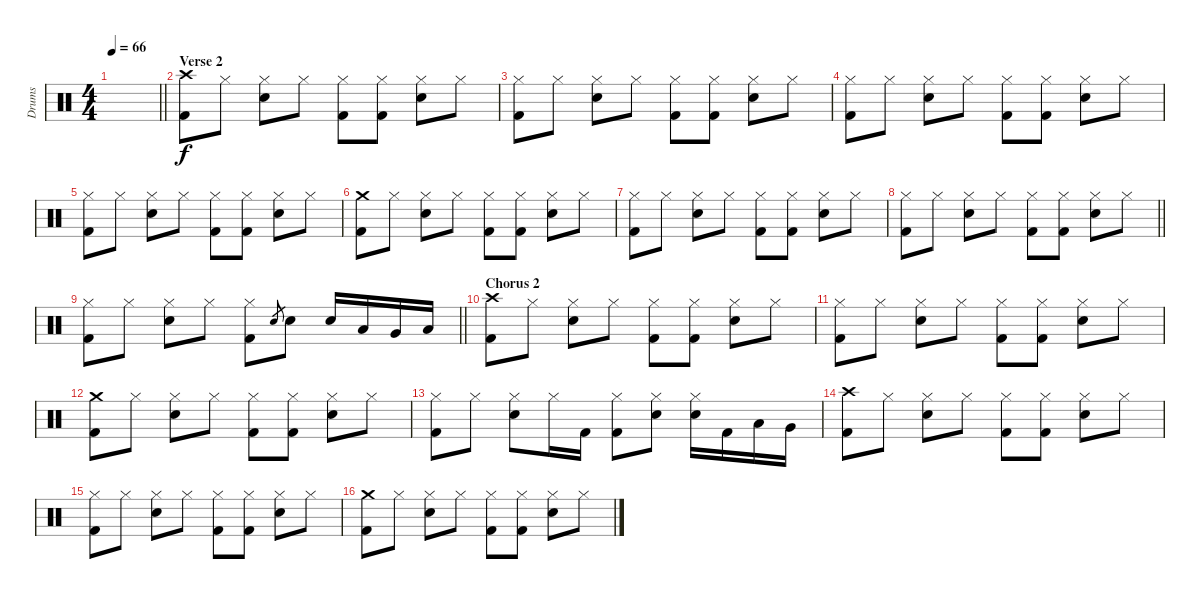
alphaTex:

\track ("Drums" "Drums") {instrument percussion}
\staff {score}
\articulation defaults
\ts (4 4)
\tempo 66
\clef neutral
\barLineRight lightlight
\ks c
|
\section ("" "Verse 2")
("Crash high (hit)" "Kick (hit) 2").8 "Hi-Hat (closed)".8 ("Hi-Hat (closed)" "Snare (hit) 2").8 "Hi-Hat (closed)".8 ("Hi-Hat (closed)" "Kick (hit) 2").8 ("Hi-Hat (closed)" "Kick (hit) 2").8 ("Hi-Hat (closed)" "Snare (hit) 2").8 "Hi-Hat (closed)".8 |
("Hi-Hat (closed)" "Kick (hit) 2").8 "Hi-Hat (closed)".8 ("Hi-Hat (closed)" "Snare (hit) 2").8 "Hi-Hat (closed)".8 ("Hi-Hat (closed)" "Kick (hit) 2").8 ("Hi-Hat (closed)" "Kick (hit) 2").8 ("Hi-Hat (closed)" "Snare (hit) 2").8 "Hi-Hat (closed)".8 |
("Hi-Hat (closed)" "Kick (hit) 2").8 "Hi-Hat (closed)".8 ("Hi-Hat (closed)" "Snare (hit) 2").8 "Hi-Hat (closed)".8 ("Hi-Hat (closed)" "Kick (hit) 2").8 ("Hi-Hat (closed)" "Kick (hit) 2").8 ("Hi-Hat (closed)" "Snare (hit) 2").8 "Hi-Hat (closed)".8 |
("Hi-Hat (closed)" "Kick (hit) 2").8 "Hi-Hat (closed)".8 ("Hi-Hat (closed)" "Snare (hit) 2").8 "Hi-Hat (closed)".8 ("Hi-Hat (closed)" "Kick (hit) 2").8 ("Hi-Hat (closed)" "Kick (hit) 2").8 ("Hi-Hat (closed)" "Snare (hit) 2").8 "Hi-Hat (closed)".8 |
("Crash medium (hit)" "Kick (hit) 2").8 "Hi-Hat (closed)".8 ("Hi-Hat (closed)" "Snare (hit) 2").8 "Hi-Hat (closed)".8 ("Hi-Hat (closed)" "Kick (hit) 2").8 ("Hi-Hat (closed)" "Kick (hit) 2").8 ("Hi-Hat (closed)" "Snare (hit) 2").8 "Hi-Hat (closed)".8 |
("Hi-Hat (closed)" "Kick (hit) 2").8 "Hi-Hat (closed)".8 ("Hi-Hat (closed)" "Snare (hit) 2").8 "Hi-Hat (closed)".8 ("Hi-Hat (closed)" "Kick (hit) 2").8 ("Hi-Hat (closed)" "Kick (hit) 2").8 ("Hi-Hat (closed)" "Snare (hit) 2").8 "Hi-Hat (closed)".8 |
\barLineRight lightlight
("Hi-Hat (closed)" "Kick (hit) 2").8 "Hi-Hat (closed)".8 ("Hi-Hat (closed)" "Snare (hit) 2").8 "Hi-Hat (closed)".8 ("Hi-Hat (closed)" "Kick (hit) 2").8 ("Hi-Hat (closed)" "Kick (hit) 2").8 ("Hi-Hat (closed)" "Snare (hit) 2").8 "Hi-Hat (closed)".8 |
\barLineRight lightlight
("Hi-Hat (closed)" "Kick (hit) 2").8 "Hi-Hat (closed)".8 ("Hi-Hat (closed)" "Snare (hit) 2").8 "Hi-Hat (closed)".8 ("Hi-Hat (closed)" "Kick (hit) 2").8 "Snare (hit) 2".8{gr} "Snare (hit) 2".8 "Snare (hit) 2".16 "Low Tom (hit)".16 "Very Low Tom (hit)".16 "Low Floor Tom (hit)".16 |
\section ("" "Chorus 2")
("Crash high (hit)" "Kick (hit) 2").8 "Hi-Hat (closed)".8 ("Hi-Hat (closed)" "Snare (hit) 2").8 "Hi-Hat (closed)".8 ("Hi-Hat (closed)" "Kick (hit) 2").8 ("Hi-Hat (closed)" "Kick (hit) 2").8 ("Hi-Hat (closed)" "Snare (hit) 2").8 "Hi-Hat (closed)".8 |
("Hi-Hat (closed)" "Kick (hit) 2").8 "Hi-Hat (closed)".8 ("Hi-Hat (closed)" "Snare (hit) 2").8 "Hi-Hat (closed)".8 ("Hi-Hat (closed)" "Kick (hit) 2").8 ("Hi-Hat (closed)" "Kick (hit) 2").8 ("Hi-Hat (closed)" "Snare (hit) 2").8 "Hi-Hat (closed)".8 |
("Crash medium (hit)" "Kick (hit) 2").8 "Hi-Hat (closed)".8 ("Hi-Hat (closed)" "Snare (hit) 2").8 "Hi-Hat (closed)".8 ("Hi-Hat (closed)" "Kick (hit) 2").8 ("Hi-Hat (closed)" "Kick (hit) 2").8 ("Hi-Hat (closed)" "Snare (hit) 2").8 "Hi-Hat (closed)".8 |
("Hi-Hat (closed)" "Kick (hit) 2").8 "Hi-Hat (closed)".8 ("Hi-Hat (closed)" "Snare (hit) 2").8 "Hi-Hat (closed)".16 "Kick (hit) 2".16 ("Hi-Hat (closed)" "Kick (hit) 2").8 ("Hi-Hat (closed)" "Snare (hit) 2").8 ("Hi-Hat (closed)" "Snare (hit) 2").16 "Kick (hit) 2".16 "Low Tom (hit)".16 "Very Low Tom (hit)".16 |
("Crash high (hit)" "Kick (hit) 2").8 "Hi-Hat (closed)".8 ("Hi-Hat (closed)" "Snare (hit) 2").8 "Hi-Hat (closed)".8 ("Hi-Hat (closed)" "Kick (hit) 2").8 ("Hi-Hat (closed)" "Kick (hit) 2").8 ("Hi-Hat (closed)" "Snare (hit) 2").8 "Hi-Hat (closed)".8 |
("Hi-Hat (closed)" "Kick (hit) 2").8 "Hi-Hat (closed)".8 ("Hi-Hat (closed)" "Snare (hit) 2").8 "Hi-Hat (closed)".8 ("Hi-Hat (closed)" "Kick (hit) 2").8 ("Hi-Hat (closed)" "Kick (hit) 2").8 ("Hi-Hat (closed)" "Snare (hit) 2").8 "Hi-Hat (closed)".8 |
("Crash medium (hit)" "Kick (hit) 2").8 "Hi-Hat (closed)".8 ("Hi-Hat (closed)" "Snare (hit) 2").8 "Hi-Hat (closed)".8 ("Hi-Hat (closed)" "Kick (hit) 2").8 ("Hi-Hat (closed)" "Kick (hit) 2").8 ("Hi-Hat (closed)" "Snare (hit) 2").8 "Hi-Hat (closed)".8
